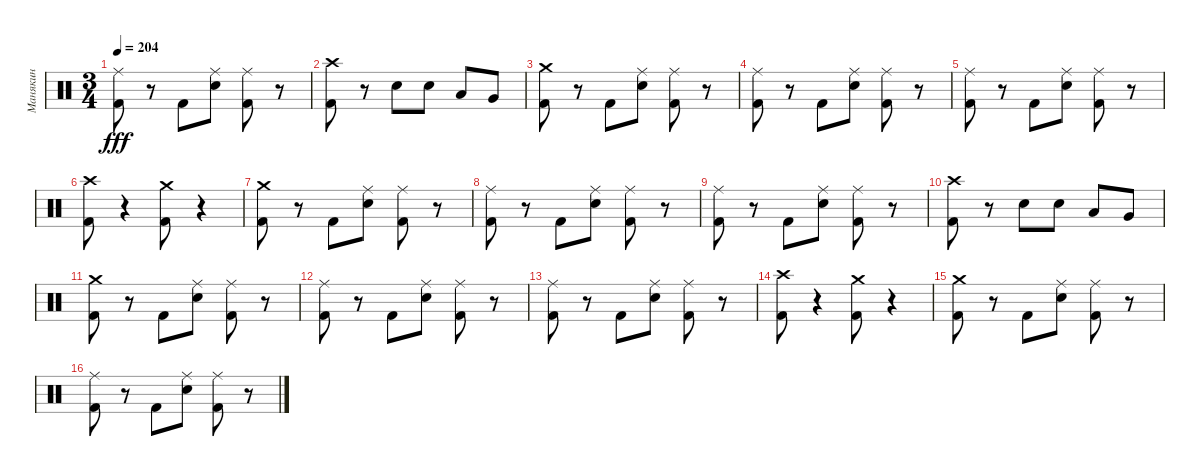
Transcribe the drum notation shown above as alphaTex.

\track ("Манякин" "Манякин") {instrument percussion}
\staff {score}
\articulation defaults
\ts (3 4)
\tempo 204
\clef neutral
\ks c
("Ride (middle)" "Kick (hit) 2").8{dy fff} r.8 "Kick (hit) 2".8 ("Ride (middle)" "Snare (hit) 2").8 ("Ride (middle)" "Kick (hit) 2").8 r.8 |
("Kick (hit) 2" "Crash high (hit)").8 r.8 "Snare (hit) 2".8 "Snare (hit) 2".8 "Low Tom (hit)".8 "Very Low Tom (hit)".8 |
("Kick (hit) 2" "Crash medium (hit)").8 r.8 "Kick (hit) 2".8 ("Ride (middle)" "Snare (hit) 2").8 ("Ride (middle)" "Kick (hit) 2").8 r.8 |
("Ride (middle)" "Kick (hit) 2").8 r.8 "Kick (hit) 2".8 ("Ride (middle)" "Snare (hit) 2").8 ("Ride (middle)" "Kick (hit) 2").8 r.8 |
("Ride (middle)" "Kick (hit) 2").8 r.8 "Kick (hit) 2".8 ("Ride (middle)" "Snare (hit) 2").8 ("Ride (middle)" "Kick (hit) 2").8 r.8 |
("Crash high (hit)" "Kick (hit) 2").8 r.4 ("Kick (hit) 2" "Crash medium (hit)").8 r.4 |
("Kick (hit) 2" "Crash medium (hit)").8 r.8 "Kick (hit) 2".8 ("Ride (middle)" "Snare (hit) 2").8 ("Ride (middle)" "Kick (hit) 2").8 r.8 |
("Ride (middle)" "Kick (hit) 2").8 r.8 "Kick (hit) 2".8 ("Ride (middle)" "Snare (hit) 2").8 ("Ride (middle)" "Kick (hit) 2").8 r.8 |
("Ride (middle)" "Kick (hit) 2").8 r.8 "Kick (hit) 2".8 ("Ride (middle)" "Snare (hit) 2").8 ("Ride (middle)" "Kick (hit) 2").8 r.8 |
("Kick (hit) 2" "Crash high (hit)").8 r.8 "Snare (hit) 2".8 "Snare (hit) 2".8 "Low Tom (hit)".8 "Very Low Tom (hit)".8 |
("Kick (hit) 2" "Crash medium (hit)").8 r.8 "Kick (hit) 2".8 ("Ride (middle)" "Snare (hit) 2").8 ("Ride (middle)" "Kick (hit) 2").8 r.8 |
("Ride (middle)" "Kick (hit) 2").8 r.8 "Kick (hit) 2".8 ("Ride (middle)" "Snare (hit) 2").8 ("Ride (middle)" "Kick (hit) 2").8 r.8 |
("Ride (middle)" "Kick (hit) 2").8 r.8 "Kick (hit) 2".8 ("Ride (middle)" "Snare (hit) 2").8 ("Ride (middle)" "Kick (hit) 2").8 r.8 |
("Crash high (hit)" "Kick (hit) 2").8 r.4 ("Kick (hit) 2" "Crash medium (hit)").8 r.4 |
("Kick (hit) 2" "Crash medium (hit)").8 r.8 "Kick (hit) 2".8 ("Ride (middle)" "Snare (hit) 2").8 ("Ride (middle)" "Kick (hit) 2").8 r.8 |
("Ride (middle)" "Kick (hit) 2").8 r.8 "Kick (hit) 2".8 ("Ride (middle)" "Snare (hit) 2").8 ("Ride (middle)" "Kick (hit) 2").8 r.8
